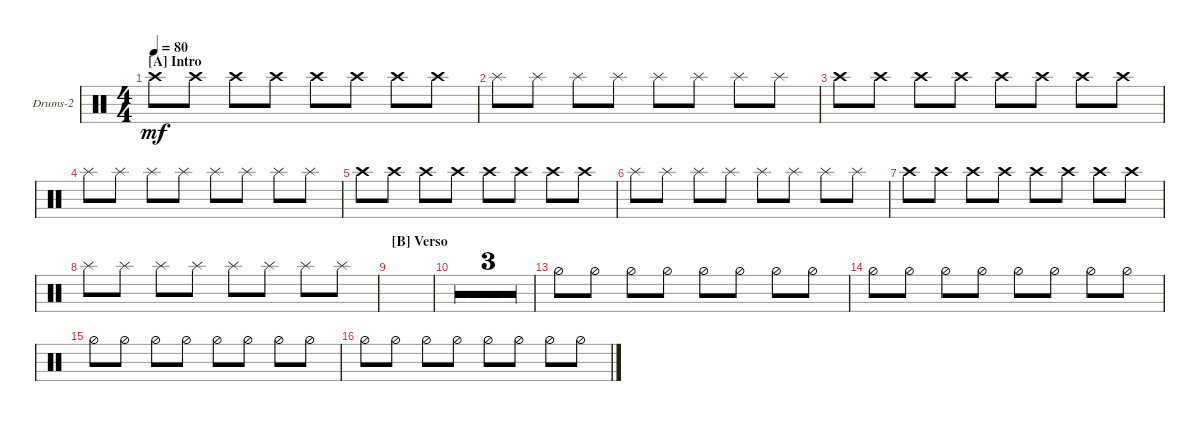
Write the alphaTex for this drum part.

\defaultSystemsLayout 4
\bracketExtendMode groupsimilarinstruments
\firstSystemTrackNameOrientation horizontal
\otherSystemsTrackNameOrientation horizontal
\track ("Percussão" "Drums-2") {multiBarRest instrument percussion}
\staff {score}
\articulation defaults
\ts (4 4)
\section ("A" "Intro")
\tempo 80
\clef neutral
\ks c "Crash high (hit)".8{dy mf} "Crash high (hit)".8 "Crash high (hit)".8 "Crash high (hit)".8 "Crash high (hit)".8 "Crash high (hit)".8 "Crash high (hit)".8 "Crash high (hit)".8
|
"Splash (hit)".8 "Splash (hit)".8 "Splash (hit)".8 "Splash (hit)".8 "Splash (hit)".8 "Splash (hit)".8 "Splash (hit)".8 "Splash (hit)".8 |
"Crash high (hit)".8 "Crash high (hit)".8 "Crash high (hit)".8 "Crash high (hit)".8 "Crash high (hit)".8 "Crash high (hit)".8 "Crash high (hit)".8 "Crash high (hit)".8 |
"Splash (hit)".8 "Splash (hit)".8 "Splash (hit)".8 "Splash (hit)".8 "Splash (hit)".8 "Splash (hit)".8 "Splash (hit)".8 "Splash (hit)".8 |
"Crash high (hit)".8 "Crash high (hit)".8 "Crash high (hit)".8 "Crash high (hit)".8 "Crash high (hit)".8 "Crash high (hit)".8 "Crash high (hit)".8 "Crash high (hit)".8 |
"Splash (hit)".8 "Splash (hit)".8 "Splash (hit)".8 "Splash (hit)".8 "Splash (hit)".8 "Splash (hit)".8 "Splash (hit)".8 "Splash (hit)".8 |
"Crash high (hit)".8 "Crash high (hit)".8 "Crash high (hit)".8 "Crash high (hit)".8 "Crash high (hit)".8 "Crash high (hit)".8 "Crash high (hit)".8 "Crash high (hit)".8 |
"Splash (hit)".8 "Splash (hit)".8 "Splash (hit)".8 "Splash (hit)".8 "Splash (hit)".8 "Splash (hit)".8 "Splash (hit)".8 "Splash (hit)".8 |
\section ("B" "Verso")
|
|
|
|
"Hi-Hat (half)".8 "Hi-Hat (half)".8 "Hi-Hat (half)".8 "Hi-Hat (half)".8 "Hi-Hat (half)".8 "Hi-Hat (half)".8 "Hi-Hat (half)".8 "Hi-Hat (half)".8 |
"Hi-Hat (half)".8 "Hi-Hat (half)".8 "Hi-Hat (half)".8 "Hi-Hat (half)".8 "Hi-Hat (half)".8 "Hi-Hat (half)".8 "Hi-Hat (half)".8 "Hi-Hat (half)".8 |
"Hi-Hat (half)".8 "Hi-Hat (half)".8 "Hi-Hat (half)".8 "Hi-Hat (half)".8 "Hi-Hat (half)".8 "Hi-Hat (half)".8 "Hi-Hat (half)".8 "Hi-Hat (half)".8 |
"Hi-Hat (half)".8 "Hi-Hat (half)".8 "Hi-Hat (half)".8 "Hi-Hat (half)".8 "Hi-Hat (half)".8 "Hi-Hat (half)".8 "Hi-Hat (half)".8 "Hi-Hat (half)".8
